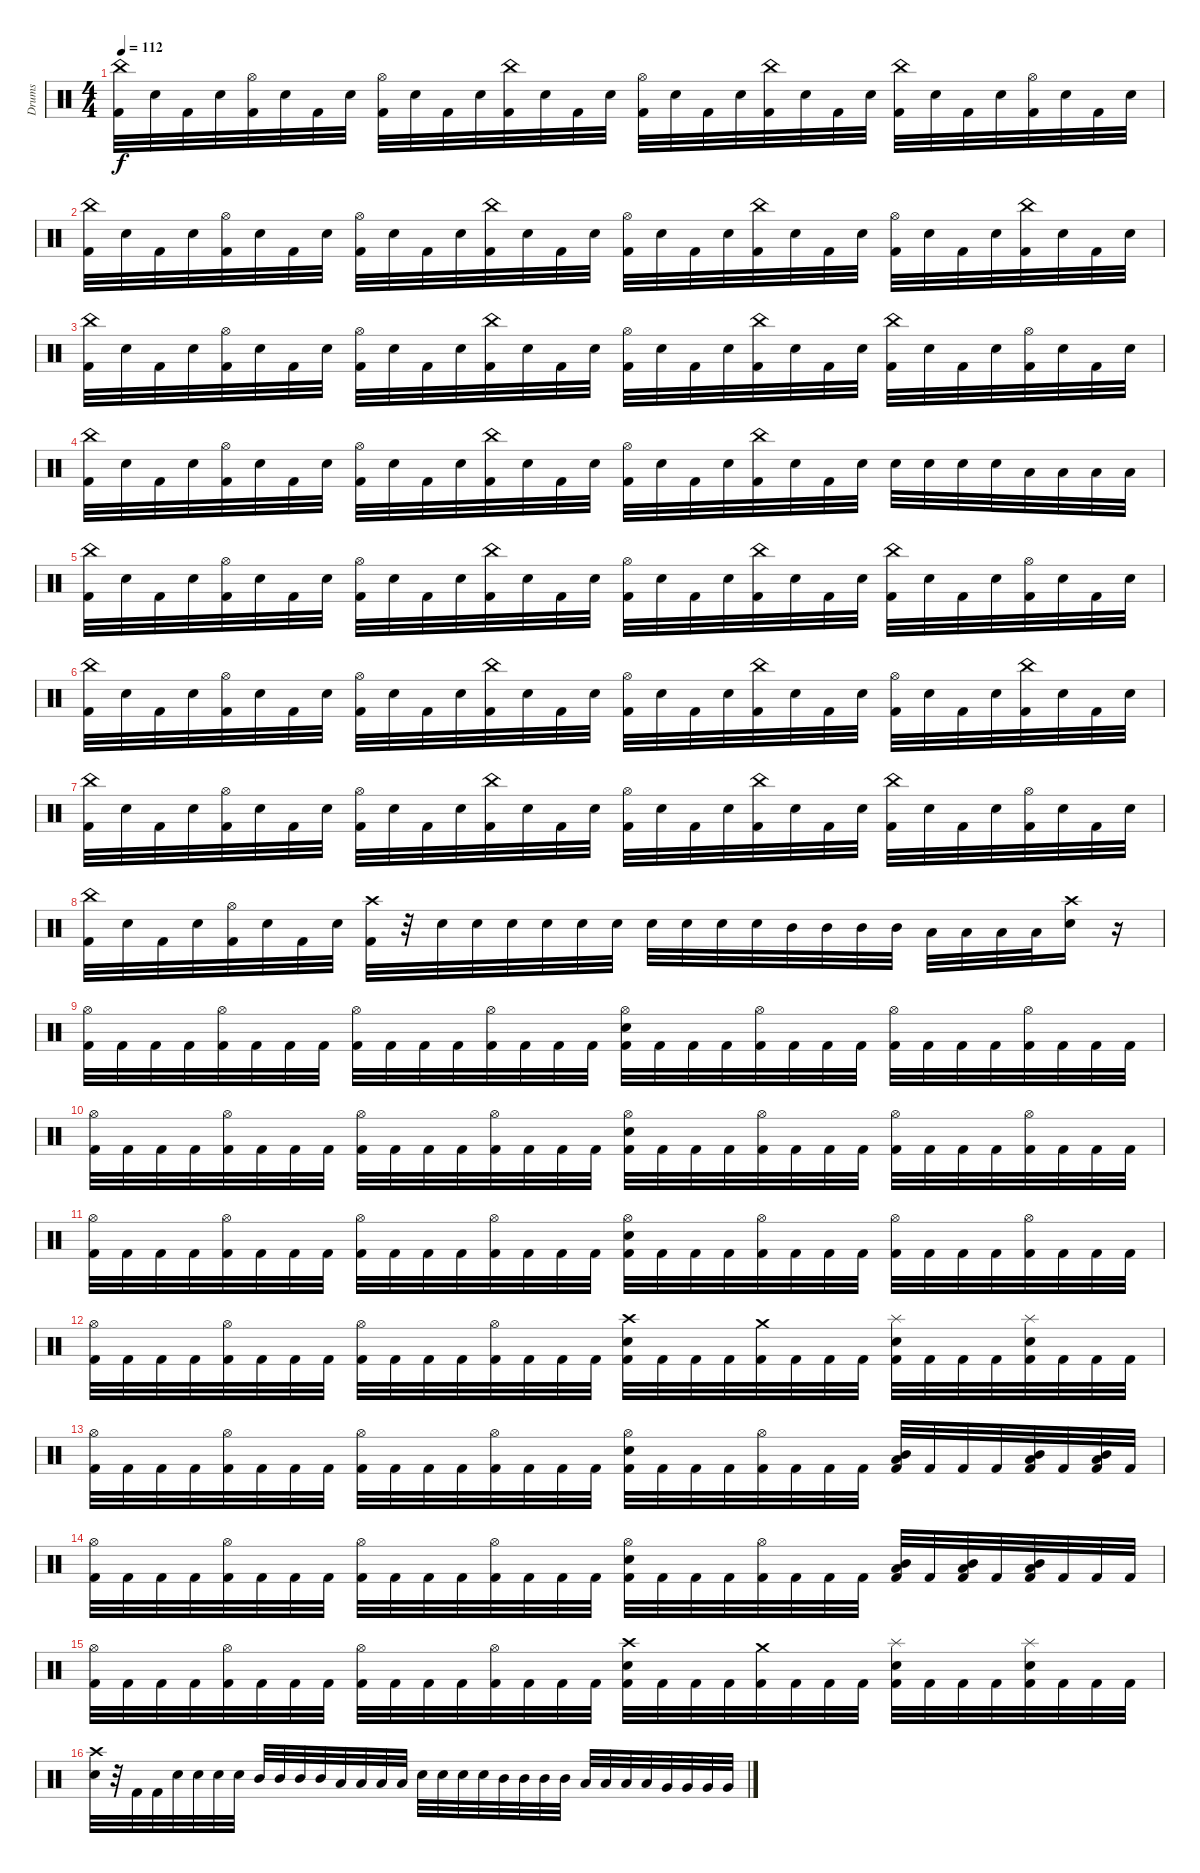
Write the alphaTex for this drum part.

\track ("Drums" "Drums") {instrument percussion}
\staff {score}
\articulation defaults
\ts (4 4)
\tempo 112
\clef neutral
\ks c
("China (hit)" "Kick (hit) 2").32{dy f} "Snare (hit) 2".32 "Kick (hit) 2".32 "Snare (hit) 2".32 ("Hi-Hat (open)" "Kick (hit) 2").32 "Snare (hit) 2".32 "Kick (hit) 2".32 "Snare (hit) 2".32 ("Hi-Hat (open)" "Kick (hit) 2").32 "Snare (hit) 2".32 "Kick (hit) 2".32 "Snare (hit) 2".32 ("China (hit)" "Kick (hit) 2").32 "Snare (hit) 2".32 "Kick (hit) 2".32 "Snare (hit) 2".32 ("Hi-Hat (open)" "Kick (hit) 2").32 "Snare (hit) 2".32 "Kick (hit) 2".32 "Snare (hit) 2".32 ("China (hit)" "Kick (hit) 2").32 "Snare (hit) 2".32 "Kick (hit) 2".32 "Snare (hit) 2".32 ("China (hit)" "Kick (hit) 2").32 "Snare (hit) 2".32 "Kick (hit) 2".32 "Snare (hit) 2".32 ("Hi-Hat (open)" "Kick (hit) 2").32 "Snare (hit) 2".32 "Kick (hit) 2".32 "Snare (hit) 2".32 |
("China (hit)" "Kick (hit) 2").32 "Snare (hit) 2".32 "Kick (hit) 2".32 "Snare (hit) 2".32 ("Hi-Hat (open)" "Kick (hit) 2").32 "Snare (hit) 2".32 "Kick (hit) 2".32 "Snare (hit) 2".32 ("Hi-Hat (open)" "Kick (hit) 2").32 "Snare (hit) 2".32 "Kick (hit) 2".32 "Snare (hit) 2".32 ("China (hit)" "Kick (hit) 2").32 "Snare (hit) 2".32 "Kick (hit) 2".32 "Snare (hit) 2".32 ("Hi-Hat (open)" "Kick (hit) 2").32 "Snare (hit) 2".32 "Kick (hit) 2".32 "Snare (hit) 2".32 ("China (hit)" "Kick (hit) 2").32 "Snare (hit) 2".32 "Kick (hit) 2".32 "Snare (hit) 2".32 ("Hi-Hat (open)" "Kick (hit) 2").32 "Snare (hit) 2".32 "Kick (hit) 2".32 "Snare (hit) 2".32 ("China (hit)" "Kick (hit) 2").32 "Snare (hit) 2".32 "Kick (hit) 2".32 "Snare (hit) 2".32 |
("China (hit)" "Kick (hit) 2").32 "Snare (hit) 2".32 "Kick (hit) 2".32 "Snare (hit) 2".32 ("Hi-Hat (open)" "Kick (hit) 2").32 "Snare (hit) 2".32 "Kick (hit) 2".32 "Snare (hit) 2".32 ("Hi-Hat (open)" "Kick (hit) 2").32 "Snare (hit) 2".32 "Kick (hit) 2".32 "Snare (hit) 2".32 ("China (hit)" "Kick (hit) 2").32 "Snare (hit) 2".32 "Kick (hit) 2".32 "Snare (hit) 2".32 ("Hi-Hat (open)" "Kick (hit) 2").32 "Snare (hit) 2".32 "Kick (hit) 2".32 "Snare (hit) 2".32 ("China (hit)" "Kick (hit) 2").32 "Snare (hit) 2".32 "Kick (hit) 2".32 "Snare (hit) 2".32 ("China (hit)" "Kick (hit) 2").32 "Snare (hit) 2".32 "Kick (hit) 2".32 "Snare (hit) 2".32 ("Hi-Hat (open)" "Kick (hit) 2").32 "Snare (hit) 2".32 "Kick (hit) 2".32 "Snare (hit) 2".32 |
("China (hit)" "Kick (hit) 2").32 "Snare (hit) 2".32 "Kick (hit) 2".32 "Snare (hit) 2".32 ("Hi-Hat (open)" "Kick (hit) 2").32 "Snare (hit) 2".32 "Kick (hit) 2".32 "Snare (hit) 2".32 ("Hi-Hat (open)" "Kick (hit) 2").32 "Snare (hit) 2".32 "Kick (hit) 2".32 "Snare (hit) 2".32 ("China (hit)" "Kick (hit) 2").32 "Snare (hit) 2".32 "Kick (hit) 2".32 "Snare (hit) 2".32 ("Hi-Hat (open)" "Kick (hit) 2").32 "Snare (hit) 2".32 "Kick (hit) 2".32 "Snare (hit) 2".32 ("China (hit)" "Kick (hit) 2").32 "Snare (hit) 2".32 "Kick (hit) 2".32 "Snare (hit) 2".32 "Snare (hit) 2".32 "Snare (hit) 2".32 "Snare (hit) 2".32 "Snare (hit) 2".32 "Low Tom (hit)".32 "Low Tom (hit)".32 "Low Tom (hit)".32 "Low Tom (hit)".32 |
("China (hit)" "Kick (hit) 2").32 "Snare (hit) 2".32 "Kick (hit) 2".32 "Snare (hit) 2".32 ("Hi-Hat (open)" "Kick (hit) 2").32 "Snare (hit) 2".32 "Kick (hit) 2".32 "Snare (hit) 2".32 ("Hi-Hat (open)" "Kick (hit) 2").32 "Snare (hit) 2".32 "Kick (hit) 2".32 "Snare (hit) 2".32 ("China (hit)" "Kick (hit) 2").32 "Snare (hit) 2".32 "Kick (hit) 2".32 "Snare (hit) 2".32 ("Hi-Hat (open)" "Kick (hit) 2").32 "Snare (hit) 2".32 "Kick (hit) 2".32 "Snare (hit) 2".32 ("China (hit)" "Kick (hit) 2").32 "Snare (hit) 2".32 "Kick (hit) 2".32 "Snare (hit) 2".32 ("China (hit)" "Kick (hit) 2").32 "Snare (hit) 2".32 "Kick (hit) 2".32 "Snare (hit) 2".32 ("Hi-Hat (open)" "Kick (hit) 2").32 "Snare (hit) 2".32 "Kick (hit) 2".32 "Snare (hit) 2".32 |
("China (hit)" "Kick (hit) 2").32 "Snare (hit) 2".32 "Kick (hit) 2".32 "Snare (hit) 2".32 ("Hi-Hat (open)" "Kick (hit) 2").32 "Snare (hit) 2".32 "Kick (hit) 2".32 "Snare (hit) 2".32 ("Hi-Hat (open)" "Kick (hit) 2").32 "Snare (hit) 2".32 "Kick (hit) 2".32 "Snare (hit) 2".32 ("China (hit)" "Kick (hit) 2").32 "Snare (hit) 2".32 "Kick (hit) 2".32 "Snare (hit) 2".32 ("Hi-Hat (open)" "Kick (hit) 2").32 "Snare (hit) 2".32 "Kick (hit) 2".32 "Snare (hit) 2".32 ("China (hit)" "Kick (hit) 2").32 "Snare (hit) 2".32 "Kick (hit) 2".32 "Snare (hit) 2".32 ("Hi-Hat (open)" "Kick (hit) 2").32 "Snare (hit) 2".32 "Kick (hit) 2".32 "Snare (hit) 2".32 ("China (hit)" "Kick (hit) 2").32 "Snare (hit) 2".32 "Kick (hit) 2".32 "Snare (hit) 2".32 |
("China (hit)" "Kick (hit) 2").32 "Snare (hit) 2".32 "Kick (hit) 2".32 "Snare (hit) 2".32 ("Hi-Hat (open)" "Kick (hit) 2").32 "Snare (hit) 2".32 "Kick (hit) 2".32 "Snare (hit) 2".32 ("Hi-Hat (open)" "Kick (hit) 2").32 "Snare (hit) 2".32 "Kick (hit) 2".32 "Snare (hit) 2".32 ("China (hit)" "Kick (hit) 2").32 "Snare (hit) 2".32 "Kick (hit) 2".32 "Snare (hit) 2".32 ("Hi-Hat (open)" "Kick (hit) 2").32 "Snare (hit) 2".32 "Kick (hit) 2".32 "Snare (hit) 2".32 ("China (hit)" "Kick (hit) 2").32 "Snare (hit) 2".32 "Kick (hit) 2".32 "Snare (hit) 2".32 ("China (hit)" "Kick (hit) 2").32 "Snare (hit) 2".32 "Kick (hit) 2".32 "Snare (hit) 2".32 ("Hi-Hat (open)" "Kick (hit) 2").32 "Snare (hit) 2".32 "Kick (hit) 2".32 "Snare (hit) 2".32 |
("China (hit)" "Kick (hit) 2").32 "Snare (hit) 2".32 "Kick (hit) 2".32 "Snare (hit) 2".32 ("Hi-Hat (open)" "Kick (hit) 2").32 "Snare (hit) 2".32 "Kick (hit) 2".32 "Snare (hit) 2".32 ("Crash high (hit)" "Kick (hit) 2").32 r.32 "Snare (hit) 2".32 "Snare (hit) 2".32 "Snare (hit) 2".32 "Snare (hit) 2".32 "Snare (hit) 2".32 "Snare (hit) 2".32 "Snare (hit) 2".32 "Snare (hit) 2".32 "Snare (hit) 2".32 "Snare (hit) 2".32 "Mid Tom (hit)".32 "Mid Tom (hit)".32 "Mid Tom (hit)".32 "Mid Tom (hit)".32 "Low Tom (hit)".32 "Low Tom (hit)".32 "Low Tom (hit)".32 "Low Tom (hit)".32 ("Crash high (hit)" "Snare (hit) 2").16 r.16 |
("Hi-Hat (open)" "Kick (hit) 2").32 "Kick (hit) 2".32 "Kick (hit) 2".32 "Kick (hit) 2".32 ("Hi-Hat (open)" "Kick (hit) 2").32 "Kick (hit) 2".32 "Kick (hit) 2".32 "Kick (hit) 2".32 ("Hi-Hat (open)" "Kick (hit) 2").32 "Kick (hit) 2".32 "Kick (hit) 2".32 "Kick (hit) 2".32 ("Hi-Hat (open)" "Kick (hit) 2").32 "Kick (hit) 2".32 "Kick (hit) 2".32 "Kick (hit) 2".32 ("Hi-Hat (open)" "Snare (hit) 2" "Kick (hit) 2").32 "Kick (hit) 2".32 "Kick (hit) 2".32 "Kick (hit) 2".32 ("Hi-Hat (open)" "Kick (hit) 2").32 "Kick (hit) 2".32 "Kick (hit) 2".32 "Kick (hit) 2".32 ("Hi-Hat (open)" "Kick (hit) 2").32 "Kick (hit) 2".32 "Kick (hit) 2".32 "Kick (hit) 2".32 ("Hi-Hat (open)" "Kick (hit) 2").32 "Kick (hit) 2".32 "Kick (hit) 2".32 "Kick (hit) 2".32 |
("Hi-Hat (open)" "Kick (hit) 2").32 "Kick (hit) 2".32 "Kick (hit) 2".32 "Kick (hit) 2".32 ("Hi-Hat (open)" "Kick (hit) 2").32 "Kick (hit) 2".32 "Kick (hit) 2".32 "Kick (hit) 2".32 ("Hi-Hat (open)" "Kick (hit) 2").32 "Kick (hit) 2".32 "Kick (hit) 2".32 "Kick (hit) 2".32 ("Hi-Hat (open)" "Kick (hit) 2").32 "Kick (hit) 2".32 "Kick (hit) 2".32 "Kick (hit) 2".32 ("Hi-Hat (open)" "Snare (hit) 2" "Kick (hit) 2").32 "Kick (hit) 2".32 "Kick (hit) 2".32 "Kick (hit) 2".32 ("Hi-Hat (open)" "Kick (hit) 2").32 "Kick (hit) 2".32 "Kick (hit) 2".32 "Kick (hit) 2".32 ("Hi-Hat (open)" "Kick (hit) 2").32 "Kick (hit) 2".32 "Kick (hit) 2".32 "Kick (hit) 2".32 ("Hi-Hat (open)" "Kick (hit) 2").32 "Kick (hit) 2".32 "Kick (hit) 2".32 "Kick (hit) 2".32 |
("Hi-Hat (open)" "Kick (hit) 2").32 "Kick (hit) 2".32 "Kick (hit) 2".32 "Kick (hit) 2".32 ("Hi-Hat (open)" "Kick (hit) 2").32 "Kick (hit) 2".32 "Kick (hit) 2".32 "Kick (hit) 2".32 ("Hi-Hat (open)" "Kick (hit) 2").32 "Kick (hit) 2".32 "Kick (hit) 2".32 "Kick (hit) 2".32 ("Hi-Hat (open)" "Kick (hit) 2").32 "Kick (hit) 2".32 "Kick (hit) 2".32 "Kick (hit) 2".32 ("Hi-Hat (open)" "Snare (hit) 2" "Kick (hit) 2").32 "Kick (hit) 2".32 "Kick (hit) 2".32 "Kick (hit) 2".32 ("Hi-Hat (open)" "Kick (hit) 2").32 "Kick (hit) 2".32 "Kick (hit) 2".32 "Kick (hit) 2".32 ("Hi-Hat (open)" "Kick (hit) 2").32 "Kick (hit) 2".32 "Kick (hit) 2".32 "Kick (hit) 2".32 ("Hi-Hat (open)" "Kick (hit) 2").32 "Kick (hit) 2".32 "Kick (hit) 2".32 "Kick (hit) 2".32 |
("Hi-Hat (open)" "Kick (hit) 2").32 "Kick (hit) 2".32 "Kick (hit) 2".32 "Kick (hit) 2".32 ("Hi-Hat (open)" "Kick (hit) 2").32 "Kick (hit) 2".32 "Kick (hit) 2".32 "Kick (hit) 2".32 ("Hi-Hat (open)" "Kick (hit) 2").32 "Kick (hit) 2".32 "Kick (hit) 2".32 "Kick (hit) 2".32 ("Hi-Hat (open)" "Kick (hit) 2").32 "Kick (hit) 2".32 "Kick (hit) 2".32 "Kick (hit) 2".32 ("Crash high (hit)" "Snare (hit) 2" "Kick (hit) 2").32 "Kick (hit) 2".32 "Kick (hit) 2".32 "Kick (hit) 2".32 ("Crash medium (hit)" "Kick (hit) 2").32 "Kick (hit) 2".32 "Kick (hit) 2".32 "Kick (hit) 2".32 ("Splash (hit)" "Snare (hit) 2" "Kick (hit) 2").32 "Kick (hit) 2".32 "Kick (hit) 2".32 "Kick (hit) 2".32 ("Splash (hit)" "Snare (hit) 2" "Kick (hit) 2").32 "Kick (hit) 2".32 "Kick (hit) 2".32 "Kick (hit) 2".32 |
("Hi-Hat (open)" "Kick (hit) 2").32 "Kick (hit) 2".32 "Kick (hit) 2".32 "Kick (hit) 2".32 ("Hi-Hat (open)" "Kick (hit) 2").32 "Kick (hit) 2".32 "Kick (hit) 2".32 "Kick (hit) 2".32 ("Hi-Hat (open)" "Kick (hit) 2").32 "Kick (hit) 2".32 "Kick (hit) 2".32 "Kick (hit) 2".32 ("Hi-Hat (open)" "Kick (hit) 2").32 "Kick (hit) 2".32 "Kick (hit) 2".32 "Kick (hit) 2".32 ("Hi-Hat (open)" "Snare (hit) 2" "Kick (hit) 2").32 "Kick (hit) 2".32 "Kick (hit) 2".32 "Kick (hit) 2".32 ("Hi-Hat (open)" "Kick (hit) 2").32 "Kick (hit) 2".32 "Kick (hit) 2".32 "Kick (hit) 2".32 ("Mid Tom (hit)" "Low Tom (hit)" "Kick (hit) 2").32 "Kick (hit) 2".32 "Kick (hit) 2".32 "Kick (hit) 2".32 ("Mid Tom (hit)" "Low Tom (hit)" "Kick (hit) 2").32 "Kick (hit) 2".32 ("Mid Tom (hit)" "Low Tom (hit)" "Kick (hit) 2").32 "Kick (hit) 2".32 |
("Hi-Hat (open)" "Kick (hit) 2").32 "Kick (hit) 2".32 "Kick (hit) 2".32 "Kick (hit) 2".32 ("Hi-Hat (open)" "Kick (hit) 2").32 "Kick (hit) 2".32 "Kick (hit) 2".32 "Kick (hit) 2".32 ("Hi-Hat (open)" "Kick (hit) 2").32 "Kick (hit) 2".32 "Kick (hit) 2".32 "Kick (hit) 2".32 ("Hi-Hat (open)" "Kick (hit) 2").32 "Kick (hit) 2".32 "Kick (hit) 2".32 "Kick (hit) 2".32 ("Hi-Hat (open)" "Snare (hit) 2" "Kick (hit) 2").32 "Kick (hit) 2".32 "Kick (hit) 2".32 "Kick (hit) 2".32 ("Hi-Hat (open)" "Kick (hit) 2").32 "Kick (hit) 2".32 "Kick (hit) 2".32 "Kick (hit) 2".32 ("Mid Tom (hit)" "Low Tom (hit)" "Kick (hit) 2").32 "Kick (hit) 2".32 ("Mid Tom (hit)" "Low Tom (hit)" "Kick (hit) 2").32 "Kick (hit) 2".32 ("Mid Tom (hit)" "Low Tom (hit)" "Kick (hit) 2").32 "Kick (hit) 2".32 "Kick (hit) 2".32 "Kick (hit) 2".32 |
("Hi-Hat (open)" "Kick (hit) 2").32 "Kick (hit) 2".32 "Kick (hit) 2".32 "Kick (hit) 2".32 ("Hi-Hat (open)" "Kick (hit) 2").32 "Kick (hit) 2".32 "Kick (hit) 2".32 "Kick (hit) 2".32 ("Hi-Hat (open)" "Kick (hit) 2").32 "Kick (hit) 2".32 "Kick (hit) 2".32 "Kick (hit) 2".32 ("Hi-Hat (open)" "Kick (hit) 2").32 "Kick (hit) 2".32 "Kick (hit) 2".32 "Kick (hit) 2".32 ("Crash high (hit)" "Snare (hit) 2" "Kick (hit) 2").32 "Kick (hit) 2".32 "Kick (hit) 2".32 "Kick (hit) 2".32 ("Crash medium (hit)" "Kick (hit) 2").32 "Kick (hit) 2".32 "Kick (hit) 2".32 "Kick (hit) 2".32 ("Splash (hit)" "Snare (hit) 2" "Kick (hit) 2").32 "Kick (hit) 2".32 "Kick (hit) 2".32 "Kick (hit) 2".32 ("Splash (hit)" "Snare (hit) 2" "Kick (hit) 2").32 "Kick (hit) 2".32 "Kick (hit) 2".32 "Kick (hit) 2".32 |
("Crash high (hit)" "Snare (hit) 2").32 r.32 "Kick (hit) 2".32 "Kick (hit) 2".32 "Snare (hit) 2".32 "Snare (hit) 2".32 "Snare (hit) 2".32 "Snare (hit) 2".32 "Mid Tom (hit)".32 "Mid Tom (hit)".32 "Mid Tom (hit)".32 "Mid Tom (hit)".32 "Low Tom (hit)".32 "Low Tom (hit)".32 "Low Tom (hit)".32 "Low Tom (hit)".32 "Snare (hit) 2".32 "Snare (hit) 2".32 "Snare (hit) 2".32 "Snare (hit) 2".32 "Mid Tom (hit)".32 "Mid Tom (hit)".32 "Mid Tom (hit)".32 "Mid Tom (hit)".32 "Low Tom (hit)".32 "Low Tom (hit)".32 "Low Tom (hit)".32 "Low Tom (hit)".32 "Very Low Tom (hit)".32 "Very Low Tom (hit)".32 "Very Low Tom (hit)".32 "Very Low Tom (hit)".32
